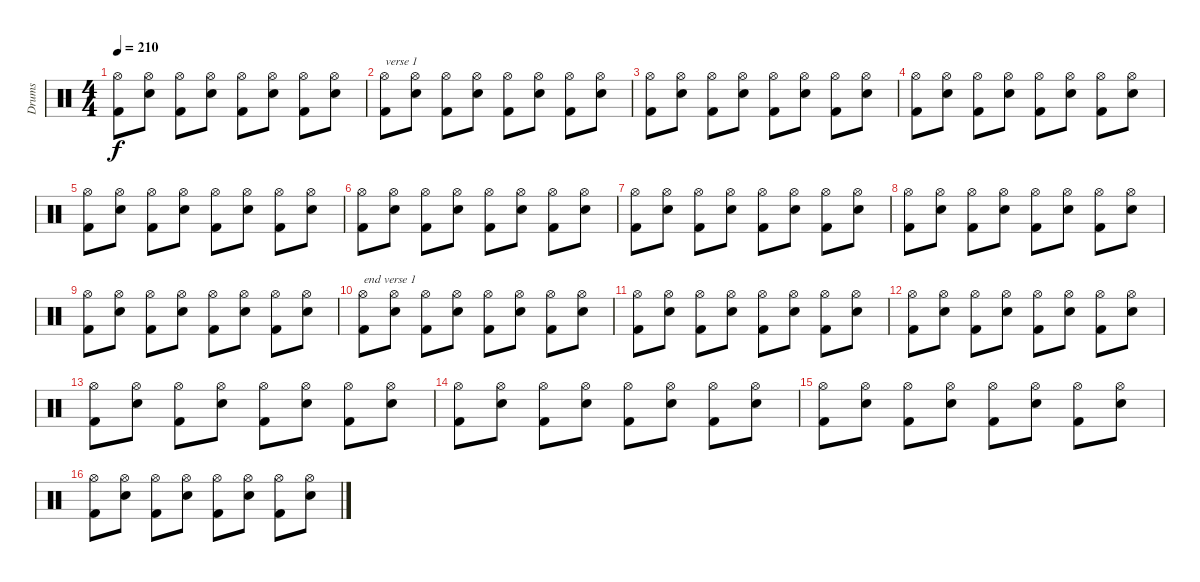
\track ("Drums" "Drums") {instrument percussion}
\staff {score}
\articulation defaults
\ts (4 4)
\tempo 210
\clef neutral
\ks c
("Kick (hit) 2" "Hi-Hat (open)").8{dy f} ("Snare (hit) 2" "Hi-Hat (open)").8 ("Kick (hit) 2" "Hi-Hat (open)").8 ("Snare (hit) 2" "Hi-Hat (open)").8 ("Kick (hit) 2" "Hi-Hat (open)").8 ("Snare (hit) 2" "Hi-Hat (open)").8 ("Kick (hit) 2" "Hi-Hat (open)").8 ("Snare (hit) 2" "Hi-Hat (open)").8 |
("Kick (hit) 2" "Hi-Hat (open)").8{txt "verse 1"} ("Snare (hit) 2" "Hi-Hat (open)").8 ("Kick (hit) 2" "Hi-Hat (open)").8 ("Snare (hit) 2" "Hi-Hat (open)").8 ("Kick (hit) 2" "Hi-Hat (open)").8 ("Snare (hit) 2" "Hi-Hat (open)").8 ("Kick (hit) 2" "Hi-Hat (open)").8 ("Snare (hit) 2" "Hi-Hat (open)").8 |
("Kick (hit) 2" "Hi-Hat (open)").8 ("Snare (hit) 2" "Hi-Hat (open)").8 ("Kick (hit) 2" "Hi-Hat (open)").8 ("Snare (hit) 2" "Hi-Hat (open)").8 ("Kick (hit) 2" "Hi-Hat (open)").8 ("Snare (hit) 2" "Hi-Hat (open)").8 ("Kick (hit) 2" "Hi-Hat (open)").8 ("Snare (hit) 2" "Hi-Hat (open)").8 |
("Kick (hit) 2" "Hi-Hat (open)").8 ("Snare (hit) 2" "Hi-Hat (open)").8 ("Kick (hit) 2" "Hi-Hat (open)").8 ("Snare (hit) 2" "Hi-Hat (open)").8 ("Kick (hit) 2" "Hi-Hat (open)").8 ("Snare (hit) 2" "Hi-Hat (open)").8 ("Kick (hit) 2" "Hi-Hat (open)").8 ("Snare (hit) 2" "Hi-Hat (open)").8 |
("Kick (hit) 2" "Hi-Hat (open)").8 ("Snare (hit) 2" "Hi-Hat (open)").8 ("Kick (hit) 2" "Hi-Hat (open)").8 ("Snare (hit) 2" "Hi-Hat (open)").8 ("Kick (hit) 2" "Hi-Hat (open)").8 ("Snare (hit) 2" "Hi-Hat (open)").8 ("Kick (hit) 2" "Hi-Hat (open)").8 ("Snare (hit) 2" "Hi-Hat (open)").8 |
("Kick (hit) 2" "Hi-Hat (open)").8 ("Snare (hit) 2" "Hi-Hat (open)").8 ("Kick (hit) 2" "Hi-Hat (open)").8 ("Snare (hit) 2" "Hi-Hat (open)").8 ("Kick (hit) 2" "Hi-Hat (open)").8 ("Snare (hit) 2" "Hi-Hat (open)").8 ("Kick (hit) 2" "Hi-Hat (open)").8 ("Snare (hit) 2" "Hi-Hat (open)").8 |
("Kick (hit) 2" "Hi-Hat (open)").8 ("Snare (hit) 2" "Hi-Hat (open)").8 ("Kick (hit) 2" "Hi-Hat (open)").8 ("Snare (hit) 2" "Hi-Hat (open)").8 ("Kick (hit) 2" "Hi-Hat (open)").8 ("Snare (hit) 2" "Hi-Hat (open)").8 ("Kick (hit) 2" "Hi-Hat (open)").8 ("Snare (hit) 2" "Hi-Hat (open)").8 |
("Kick (hit) 2" "Hi-Hat (open)").8 ("Snare (hit) 2" "Hi-Hat (open)").8 ("Kick (hit) 2" "Hi-Hat (open)").8 ("Snare (hit) 2" "Hi-Hat (open)").8 ("Kick (hit) 2" "Hi-Hat (open)").8 ("Snare (hit) 2" "Hi-Hat (open)").8 ("Kick (hit) 2" "Hi-Hat (open)").8 ("Snare (hit) 2" "Hi-Hat (open)").8 |
("Kick (hit) 2" "Hi-Hat (open)").8 ("Snare (hit) 2" "Hi-Hat (open)").8 ("Kick (hit) 2" "Hi-Hat (open)").8 ("Snare (hit) 2" "Hi-Hat (open)").8 ("Kick (hit) 2" "Hi-Hat (open)").8 ("Snare (hit) 2" "Hi-Hat (open)").8 ("Kick (hit) 2" "Hi-Hat (open)").8 ("Snare (hit) 2" "Hi-Hat (open)").8 |
("Kick (hit) 2" "Hi-Hat (open)").8{txt "end verse 1"} ("Snare (hit) 2" "Hi-Hat (open)").8 ("Kick (hit) 2" "Hi-Hat (open)").8 ("Snare (hit) 2" "Hi-Hat (open)").8 ("Kick (hit) 2" "Hi-Hat (open)").8 ("Snare (hit) 2" "Hi-Hat (open)").8 ("Kick (hit) 2" "Hi-Hat (open)").8 ("Snare (hit) 2" "Hi-Hat (open)").8 |
("Kick (hit) 2" "Hi-Hat (open)").8 ("Snare (hit) 2" "Hi-Hat (open)").8 ("Kick (hit) 2" "Hi-Hat (open)").8 ("Snare (hit) 2" "Hi-Hat (open)").8 ("Kick (hit) 2" "Hi-Hat (open)").8 ("Snare (hit) 2" "Hi-Hat (open)").8 ("Kick (hit) 2" "Hi-Hat (open)").8 ("Snare (hit) 2" "Hi-Hat (open)").8 |
("Kick (hit) 2" "Hi-Hat (open)").8 ("Snare (hit) 2" "Hi-Hat (open)").8 ("Kick (hit) 2" "Hi-Hat (open)").8 ("Snare (hit) 2" "Hi-Hat (open)").8 ("Kick (hit) 2" "Hi-Hat (open)").8 ("Snare (hit) 2" "Hi-Hat (open)").8 ("Kick (hit) 2" "Hi-Hat (open)").8 ("Snare (hit) 2" "Hi-Hat (open)").8 |
("Kick (hit) 2" "Hi-Hat (open)").8 ("Snare (hit) 2" "Hi-Hat (open)").8 ("Kick (hit) 2" "Hi-Hat (open)").8 ("Snare (hit) 2" "Hi-Hat (open)").8 ("Kick (hit) 2" "Hi-Hat (open)").8 ("Snare (hit) 2" "Hi-Hat (open)").8 ("Kick (hit) 2" "Hi-Hat (open)").8 ("Snare (hit) 2" "Hi-Hat (open)").8 |
("Kick (hit) 2" "Hi-Hat (open)").8 ("Snare (hit) 2" "Hi-Hat (open)").8 ("Kick (hit) 2" "Hi-Hat (open)").8 ("Snare (hit) 2" "Hi-Hat (open)").8 ("Kick (hit) 2" "Hi-Hat (open)").8 ("Snare (hit) 2" "Hi-Hat (open)").8 ("Kick (hit) 2" "Hi-Hat (open)").8 ("Snare (hit) 2" "Hi-Hat (open)").8 |
("Kick (hit) 2" "Hi-Hat (open)").8 ("Snare (hit) 2" "Hi-Hat (open)").8 ("Kick (hit) 2" "Hi-Hat (open)").8 ("Snare (hit) 2" "Hi-Hat (open)").8 ("Kick (hit) 2" "Hi-Hat (open)").8 ("Snare (hit) 2" "Hi-Hat (open)").8 ("Kick (hit) 2" "Hi-Hat (open)").8 ("Snare (hit) 2" "Hi-Hat (open)").8 |
("Kick (hit) 2" "Hi-Hat (open)").8 ("Snare (hit) 2" "Hi-Hat (open)").8 ("Kick (hit) 2" "Hi-Hat (open)").8 ("Snare (hit) 2" "Hi-Hat (open)").8 ("Kick (hit) 2" "Hi-Hat (open)").8 ("Snare (hit) 2" "Hi-Hat (open)").8 ("Kick (hit) 2" "Hi-Hat (open)").8 ("Snare (hit) 2" "Hi-Hat (open)").8
